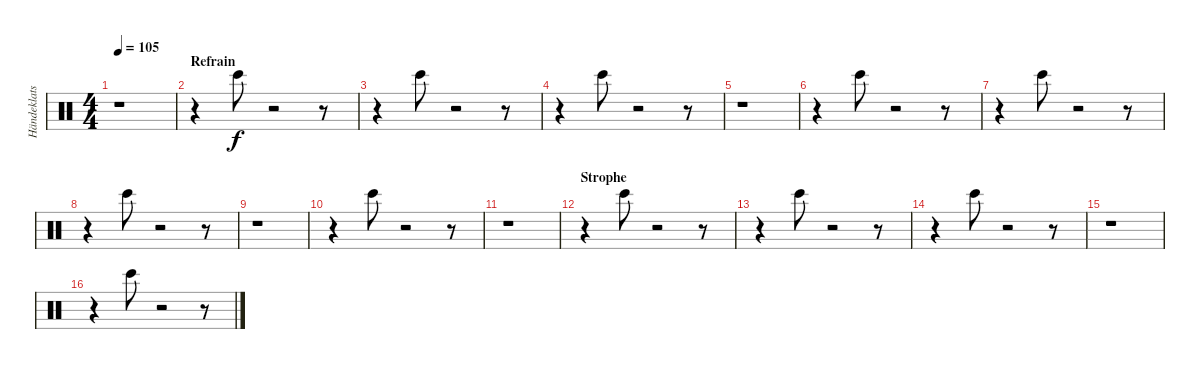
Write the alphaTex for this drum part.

\track ("Händeklatschen" "Händeklats") {instrument percussion}
\staff {score}
\articulation defaults
\ts (4 4)
\tempo 105
\clef neutral
\ks c
r.1{dy f} |
\section ("" "Refrain")
r.4 "Bongo High (hit)".8 r.2 r.8 |
r.4 "Bongo High (hit)".8 r.2 r.8 |
r.4 "Bongo High (hit)".8 r.2 r.8 |
r.1 |
r.4 "Bongo High (hit)".8 r.2 r.8 |
r.4 "Bongo High (hit)".8 r.2 r.8 |
r.4 "Bongo High (hit)".8 r.2 r.8 |
r.1 |
r.4 "Bongo High (hit)".8 r.2 r.8 |
r.1 |
\section ("" "Strophe")
r.4 "Bongo High (hit)".8 r.2 r.8 |
r.4 "Bongo High (hit)".8 r.2 r.8 |
r.4 "Bongo High (hit)".8 r.2 r.8 |
r.1 |
r.4 "Bongo High (hit)".8 r.2 r.8
